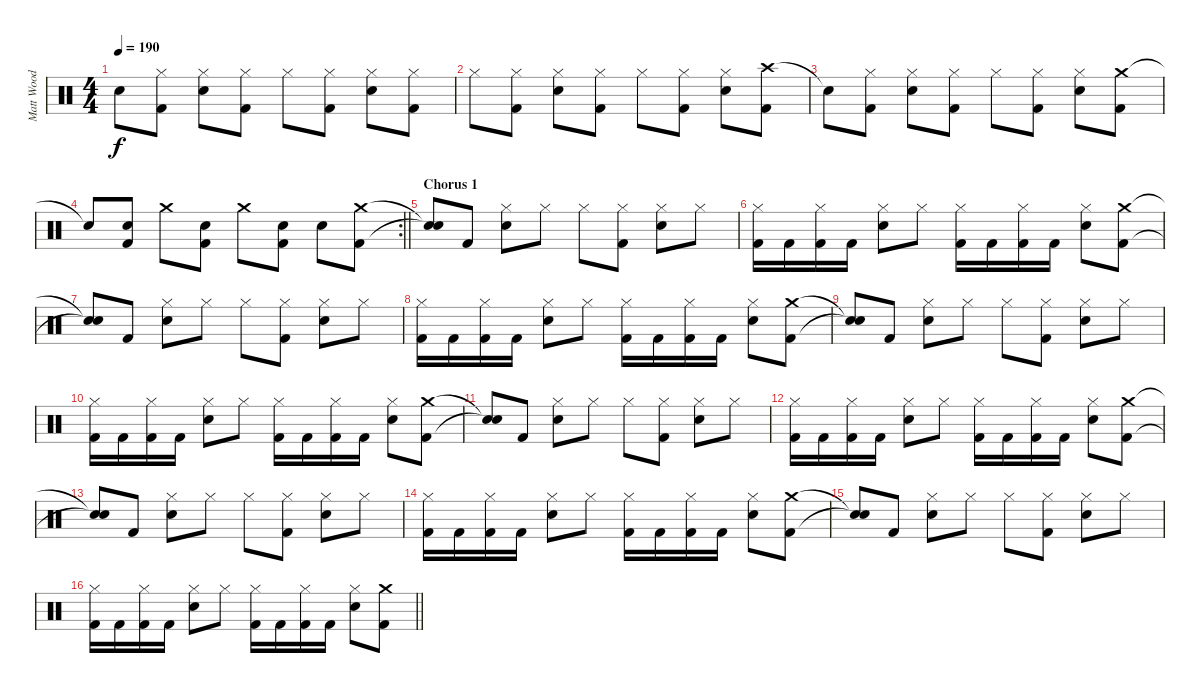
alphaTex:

\track ("Matt Wood" "Matt Wood") {instrument percussion}
\staff {score}
\articulation defaults
\ts (4 4)
\tempo 190
\clef neutral
\ks c "Snare (hit)"{t}.8{dy f}
("Hi-Hat (closed)" "Kick (hit) 2").8 ("Hi-Hat (closed)" "Snare (hit) 2").8 ("Hi-Hat (closed)" "Kick (hit) 2").8 "Hi-Hat (closed)".8 ("Hi-Hat (closed)" "Kick (hit) 2").8 ("Hi-Hat (closed)" "Snare (hit) 2").8 ("Hi-Hat (closed)" "Kick (hit) 2").8 |
"Hi-Hat (closed)".8 ("Hi-Hat (closed)" "Kick (hit) 2").8 ("Hi-Hat (closed)" "Snare (hit) 2").8 ("Hi-Hat (closed)" "Kick (hit) 2").8 "Hi-Hat (closed)".8 ("Hi-Hat (closed)" "Kick (hit) 2").8 ("Hi-Hat (closed)" "Snare (hit) 2").8 ("Crash high (hit)" "Kick (hit) 2").8 |
"Snare (hit)"{t}.8 ("Hi-Hat (closed)" "Kick (hit) 2").8 ("Hi-Hat (closed)" "Snare (hit) 2").8 ("Hi-Hat (closed)" "Kick (hit) 2").8 "Hi-Hat (closed)".8 ("Hi-Hat (closed)" "Kick (hit) 2").8 ("Hi-Hat (closed)" "Snare (hit) 2").8 ("Crash medium (hit)" "Kick (hit) 2").8 |
\rc 2
\barLineRight lightlight "Snare (hit)"{t}.8
("Snare (hit) 2" "Kick (hit) 2").8 "Crash medium (hit)".8 ("Snare (hit) 2" "Kick (hit) 2").8 "Crash medium (hit)".8 ("Snare (hit) 2" "Kick (hit) 2").8 "Snare (hit) 2".8 ("Crash medium (hit)" "Kick (hit) 2").8 |
\section ("" "Chorus 1")
("Snare (hit)"{t} "Snare (hit)"{t}).8 "Kick (hit) 2".8 ("Hi-Hat (closed)" "Snare (hit) 2").8 "Hi-Hat (closed)".8 "Hi-Hat (closed)".8 ("Hi-Hat (closed)" "Kick (hit) 2").8 ("Hi-Hat (closed)" "Snare (hit) 2").8 "Hi-Hat (closed)".8 |
("Hi-Hat (closed)" "Kick (hit) 2").16 "Kick (hit) 2".16 ("Hi-Hat (closed)" "Kick (hit) 2").16 "Kick (hit) 2".16 ("Hi-Hat (closed)" "Snare (hit) 2").8 "Hi-Hat (closed)".8 ("Hi-Hat (closed)" "Kick (hit) 2").16 "Kick (hit) 2".16 ("Hi-Hat (closed)" "Kick (hit) 2").16 "Kick (hit) 2".16 ("Hi-Hat (closed)" "Snare (hit) 2").8 ("Crash medium (hit)" "Kick (hit) 2").8 |
("Snare (hit)"{t} "Snare (hit)"{t}).8 "Kick (hit) 2".8 ("Hi-Hat (closed)" "Snare (hit) 2").8 "Hi-Hat (closed)".8 "Hi-Hat (closed)".8 ("Hi-Hat (closed)" "Kick (hit) 2").8 ("Hi-Hat (closed)" "Snare (hit) 2").8 "Hi-Hat (closed)".8 |
("Hi-Hat (closed)" "Kick (hit) 2").16 "Kick (hit) 2".16 ("Hi-Hat (closed)" "Kick (hit) 2").16 "Kick (hit) 2".16 ("Hi-Hat (closed)" "Snare (hit) 2").8 "Hi-Hat (closed)".8 ("Hi-Hat (closed)" "Kick (hit) 2").16 "Kick (hit) 2".16 ("Hi-Hat (closed)" "Kick (hit) 2").16 "Kick (hit) 2".16 ("Hi-Hat (closed)" "Snare (hit) 2").8 ("Crash medium (hit)" "Kick (hit) 2").8 |
("Snare (hit)"{t} "Snare (hit)"{t}).8 "Kick (hit) 2".8 ("Hi-Hat (closed)" "Snare (hit) 2").8 "Hi-Hat (closed)".8 "Hi-Hat (closed)".8 ("Hi-Hat (closed)" "Kick (hit) 2").8 ("Hi-Hat (closed)" "Snare (hit) 2").8 "Hi-Hat (closed)".8 |
("Hi-Hat (closed)" "Kick (hit) 2").16 "Kick (hit) 2".16 ("Hi-Hat (closed)" "Kick (hit) 2").16 "Kick (hit) 2".16 ("Hi-Hat (closed)" "Snare (hit) 2").8 "Hi-Hat (closed)".8 ("Hi-Hat (closed)" "Kick (hit) 2").16 "Kick (hit) 2".16 ("Hi-Hat (closed)" "Kick (hit) 2").16 "Kick (hit) 2".16 ("Hi-Hat (closed)" "Snare (hit) 2").8 ("Crash medium (hit)" "Kick (hit) 2").8 |
("Snare (hit)"{t} "Snare (hit)"{t}).8 "Kick (hit) 2".8 ("Hi-Hat (closed)" "Snare (hit) 2").8 "Hi-Hat (closed)".8 "Hi-Hat (closed)".8 ("Hi-Hat (closed)" "Kick (hit) 2").8 ("Hi-Hat (closed)" "Snare (hit) 2").8 "Hi-Hat (closed)".8 |
("Hi-Hat (closed)" "Kick (hit) 2").16 "Kick (hit) 2".16 ("Hi-Hat (closed)" "Kick (hit) 2").16 "Kick (hit) 2".16 ("Hi-Hat (closed)" "Snare (hit) 2").8 "Hi-Hat (closed)".8 ("Hi-Hat (closed)" "Kick (hit) 2").16 "Kick (hit) 2".16 ("Hi-Hat (closed)" "Kick (hit) 2").16 "Kick (hit) 2".16 ("Hi-Hat (closed)" "Snare (hit) 2").8 ("Crash medium (hit)" "Kick (hit) 2").8 |
("Snare (hit)"{t} "Snare (hit)"{t}).8 "Kick (hit) 2".8 ("Hi-Hat (closed)" "Snare (hit) 2").8 "Hi-Hat (closed)".8 "Hi-Hat (closed)".8 ("Hi-Hat (closed)" "Kick (hit) 2").8 ("Hi-Hat (closed)" "Snare (hit) 2").8 "Hi-Hat (closed)".8 |
("Hi-Hat (closed)" "Kick (hit) 2").16 "Kick (hit) 2".16 ("Hi-Hat (closed)" "Kick (hit) 2").16 "Kick (hit) 2".16 ("Hi-Hat (closed)" "Snare (hit) 2").8 "Hi-Hat (closed)".8 ("Hi-Hat (closed)" "Kick (hit) 2").16 "Kick (hit) 2".16 ("Hi-Hat (closed)" "Kick (hit) 2").16 "Kick (hit) 2".16 ("Hi-Hat (closed)" "Snare (hit) 2").8 ("Crash medium (hit)" "Kick (hit) 2").8 |
("Snare (hit)"{t} "Snare (hit)"{t}).8 "Kick (hit) 2".8 ("Hi-Hat (closed)" "Snare (hit) 2").8 "Hi-Hat (closed)".8 "Hi-Hat (closed)".8 ("Hi-Hat (closed)" "Kick (hit) 2").8 ("Hi-Hat (closed)" "Snare (hit) 2").8 "Hi-Hat (closed)".8 |
\barLineRight lightlight
("Hi-Hat (closed)" "Kick (hit) 2").16 "Kick (hit) 2".16 ("Hi-Hat (closed)" "Kick (hit) 2").16 "Kick (hit) 2".16 ("Hi-Hat (closed)" "Snare (hit) 2").8 "Hi-Hat (closed)".8 ("Hi-Hat (closed)" "Kick (hit) 2").16 "Kick (hit) 2".16 ("Hi-Hat (closed)" "Kick (hit) 2").16 "Kick (hit) 2".16 ("Hi-Hat (closed)" "Snare (hit) 2").8 ("Crash medium (hit)" "Kick (hit) 2").8
